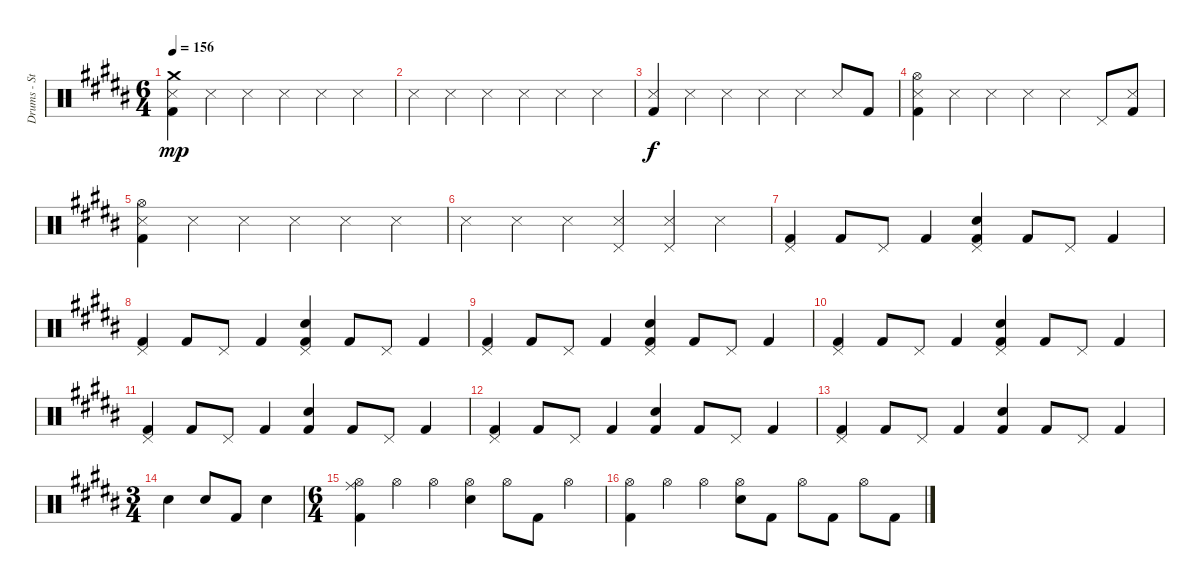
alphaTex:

\track ("Drums - Steve Judd" "Drums - St") {instrument percussion}
\staff {score}
\articulation defaults
\ts (6 4)
\tempo 156
\clef neutral
\ks b
("Crash medium (hit)" "Snare (side stick) 3" "Kick (hit) 2").4{dy mp} "Snare (side stick) 3".4 "Snare (side stick) 3".4 "Snare (side stick) 3".4 "Snare (side stick) 3".4 "Snare (side stick) 3".4 |
"Snare (side stick) 3".4 "Snare (side stick) 3".4 "Snare (side stick) 3".4 "Snare (side stick) 3".4 "Snare (side stick) 3".4 "Snare (side stick) 3".4 |
("Snare (side stick) 3" "Kick (hit) 2").4{dy f} "Snare (side stick) 3".4 "Snare (side stick) 3".4 "Snare (side stick) 3".4 "Snare (side stick) 3".4 "Snare (side stick) 3".8 "Kick (hit) 2".8 |
("Hi-Hat (open)" "Snare (side stick) 3" "Kick (hit) 2").4 "Snare (side stick) 3".4 "Snare (side stick) 3".4 "Snare (side stick) 3".4 "Snare (side stick) 3".4 "Pedal Hi-Hat (hit)".8 ("Snare (side stick) 3" "Kick (hit) 2").8 |
("Hi-Hat (open)" "Snare (side stick) 3" "Kick (hit) 2").4 "Snare (side stick) 3".4 "Snare (side stick) 3".4 "Snare (side stick) 3".4 "Snare (side stick) 3".4 "Snare (side stick) 3".4 |
"Snare (side stick) 3".4 "Snare (side stick) 3".4 "Snare (side stick) 3".4 ("Pedal Hi-Hat (hit)" "Snare (side stick) 3").4 ("Pedal Hi-Hat (hit)" "Snare (side stick) 3").4 "Snare (side stick) 3".4 |
("Pedal Hi-Hat (hit)" "Kick (hit) 2").4 "Kick (hit) 2".8 "Pedal Hi-Hat (hit)".8 "Kick (hit) 2".4 ("Electric Snare (hit)" "Pedal Hi-Hat (hit)" "Kick (hit) 2").4 "Kick (hit) 2".8 "Pedal Hi-Hat (hit)".8 "Kick (hit) 2".4 |
("Pedal Hi-Hat (hit)" "Kick (hit) 2").4 "Kick (hit) 2".8 "Pedal Hi-Hat (hit)".8 "Kick (hit) 2".4 ("Electric Snare (hit)" "Pedal Hi-Hat (hit)" "Kick (hit) 2").4 "Kick (hit) 2".8 "Pedal Hi-Hat (hit)".8 "Kick (hit) 2".4 |
("Pedal Hi-Hat (hit)" "Kick (hit) 2").4 "Kick (hit) 2".8 "Pedal Hi-Hat (hit)".8 "Kick (hit) 2".4 ("Electric Snare (hit)" "Pedal Hi-Hat (hit)" "Kick (hit) 2").4 "Kick (hit) 2".8 "Pedal Hi-Hat (hit)".8 "Kick (hit) 2".4 |
("Pedal Hi-Hat (hit)" "Kick (hit) 2").4 "Kick (hit) 2".8 "Pedal Hi-Hat (hit)".8 "Kick (hit) 2".4 ("Electric Snare (hit)" "Pedal Hi-Hat (hit)" "Kick (hit) 2").4 "Kick (hit) 2".8 "Pedal Hi-Hat (hit)".8 "Kick (hit) 2".4 |
("Pedal Hi-Hat (hit)" "Kick (hit) 2").4 "Kick (hit) 2".8 "Pedal Hi-Hat (hit)".8 "Kick (hit) 2".4 ("Electric Snare (hit)" "Kick (hit) 2").4 "Kick (hit) 2".8 "Pedal Hi-Hat (hit)".8 "Kick (hit) 2".4 |
("Pedal Hi-Hat (hit)" "Kick (hit) 2").4 "Kick (hit) 2".8 "Pedal Hi-Hat (hit)".8 "Kick (hit) 2".4 ("Electric Snare (hit)" "Kick (hit) 2").4 "Kick (hit) 2".8 "Pedal Hi-Hat (hit)".8 "Kick (hit) 2".4 |
("Pedal Hi-Hat (hit)" "Kick (hit) 2").4 "Kick (hit) 2".8 "Pedal Hi-Hat (hit)".8 "Kick (hit) 2".4 ("Electric Snare (hit)" "Kick (hit) 2").4 "Kick (hit) 2".8 "Pedal Hi-Hat (hit)".8 "Kick (hit) 2".4 |
\ts (3 4)
"Electric Snare (hit)".4 "Electric Snare (hit)".8 "Kick (hit) 2".8 "Electric Snare (hit)".4 |
\ts (6 4)
("Ride (middle)" "Hi-Hat (open)" "Kick (hit) 2").4 "Hi-Hat (open)".4 "Hi-Hat (open)".4 ("Hi-Hat (open)" "Electric Snare (hit)").4 "Hi-Hat (open)".8 "Kick (hit) 2".8 "Hi-Hat (open)".4 |
("Hi-Hat (open)" "Kick (hit) 2").4 "Hi-Hat (open)".4 "Hi-Hat (open)".4 ("Hi-Hat (open)" "Electric Snare (hit)").8 "Kick (hit) 2".8 "Hi-Hat (open)".8 "Kick (hit) 2".8 "Hi-Hat (open)".8 "Kick (hit) 2".8
